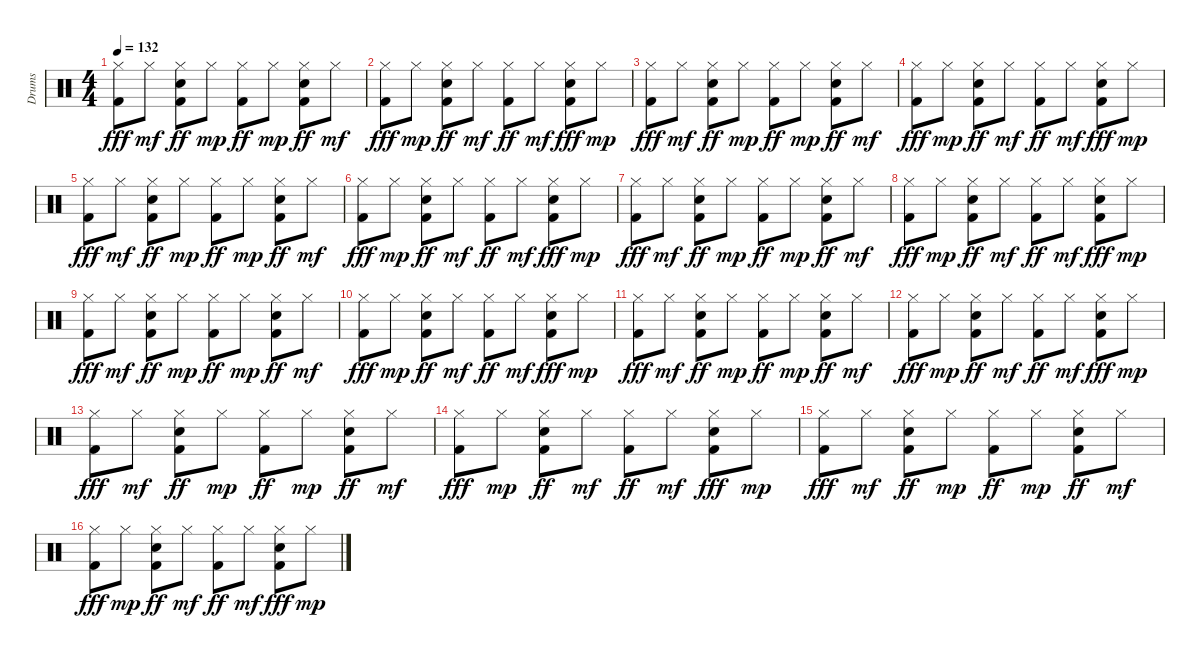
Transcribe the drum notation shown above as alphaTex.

\track ("Drums" "Drums") {instrument percussion}
\staff {score}
\articulation defaults
\ts (4 4)
\tempo 132
\clef neutral
\ks c
("Hi-Hat (closed)" "Kick (hit) 2").8{dy fff} "Hi-Hat (closed)".8{dy mf} ("Hi-Hat (closed)" "Kick (hit) 2" "Snare (hit) 2").8{dy ff} "Hi-Hat (closed)".8{dy mp} ("Hi-Hat (closed)" "Kick (hit) 2").8{dy ff} "Hi-Hat (closed)".8{dy mp} ("Kick (hit) 2" "Snare (hit) 2" "Hi-Hat (closed)").8{dy ff} "Hi-Hat (closed)".8{dy mf} |
("Kick (hit) 2" "Hi-Hat (closed)").8{dy fff} "Hi-Hat (closed)".8{dy mp} ("Kick (hit) 2" "Snare (hit) 2" "Hi-Hat (closed)").8{dy ff} "Hi-Hat (closed)".8{dy mf} ("Hi-Hat (closed)" "Kick (hit) 2").8{dy ff} "Hi-Hat (closed)".8{dy mf} ("Kick (hit) 2" "Snare (hit) 2" "Hi-Hat (closed)").8{dy fff} "Hi-Hat (closed)".8{dy mp} |
("Hi-Hat (closed)" "Kick (hit) 2").8{dy fff} "Hi-Hat (closed)".8{dy mf} ("Hi-Hat (closed)" "Kick (hit) 2" "Snare (hit) 2").8{dy ff} "Hi-Hat (closed)".8{dy mp} ("Hi-Hat (closed)" "Kick (hit) 2").8{dy ff} "Hi-Hat (closed)".8{dy mp} ("Kick (hit) 2" "Hi-Hat (closed)" "Snare (hit) 2").8{dy ff} "Hi-Hat (closed)".8{dy mf} |
("Hi-Hat (closed)" "Kick (hit) 2").8{dy fff} "Hi-Hat (closed)".8{dy mp} ("Hi-Hat (closed)" "Snare (hit) 2" "Kick (hit) 2").8{dy ff} "Hi-Hat (closed)".8{dy mf} ("Kick (hit) 2" "Hi-Hat (closed)").8{dy ff} "Hi-Hat (closed)".8{dy mf} ("Hi-Hat (closed)" "Snare (hit) 2" "Kick (hit) 2").8{dy fff} "Hi-Hat (closed)".8{dy mp} |
("Kick (hit) 2" "Hi-Hat (closed)").8{dy fff} "Hi-Hat (closed)".8{dy mf} ("Kick (hit) 2" "Snare (hit) 2" "Hi-Hat (closed)").8{dy ff} "Hi-Hat (closed)".8{dy mp} ("Kick (hit) 2" "Hi-Hat (closed)").8{dy ff} "Hi-Hat (closed)".8{dy mp} ("Hi-Hat (closed)" "Snare (hit) 2" "Kick (hit) 2").8{dy ff} "Hi-Hat (closed)".8{dy mf} |
("Kick (hit) 2" "Hi-Hat (closed)").8{dy fff} "Hi-Hat (closed)".8{dy mp} ("Kick (hit) 2" "Snare (hit) 2" "Hi-Hat (closed)").8{dy ff} "Hi-Hat (closed)".8{dy mf} ("Kick (hit) 2" "Hi-Hat (closed)").8{dy ff} "Hi-Hat (closed)".8{dy mf} ("Kick (hit) 2" "Snare (hit) 2" "Hi-Hat (closed)").8{dy fff} "Hi-Hat (closed)".8{dy mp} |
("Hi-Hat (closed)" "Kick (hit) 2").8{dy fff} "Hi-Hat (closed)".8{dy mf} ("Hi-Hat (closed)" "Kick (hit) 2" "Snare (hit) 2").8{dy ff} "Hi-Hat (closed)".8{dy mp} ("Kick (hit) 2" "Hi-Hat (closed)").8{dy ff} "Hi-Hat (closed)".8{dy mp} ("Hi-Hat (closed)" "Kick (hit) 2" "Snare (hit) 2").8{dy ff} "Hi-Hat (closed)".8{dy mf} |
("Hi-Hat (closed)" "Kick (hit) 2").8{dy fff} "Hi-Hat (closed)".8{dy mp} ("Hi-Hat (closed)" "Snare (hit) 2" "Kick (hit) 2").8{dy ff} "Hi-Hat (closed)".8{dy mf} ("Hi-Hat (closed)" "Kick (hit) 2").8{dy ff} "Hi-Hat (closed)".8{dy mf} ("Hi-Hat (closed)" "Snare (hit) 2" "Kick (hit) 2").8{dy fff} "Hi-Hat (closed)".8{dy mp} |
("Kick (hit) 2" "Hi-Hat (closed)").8{dy fff} "Hi-Hat (closed)".8{dy mf} ("Snare (hit) 2" "Hi-Hat (closed)" "Kick (hit) 2").8{dy ff} "Hi-Hat (closed)".8{dy mp} ("Hi-Hat (closed)" "Kick (hit) 2").8{dy ff} "Hi-Hat (closed)".8{dy mp} ("Hi-Hat (closed)" "Snare (hit) 2" "Kick (hit) 2").8{dy ff} "Hi-Hat (closed)".8{dy mf} |
("Kick (hit) 2" "Hi-Hat (closed)").8{dy fff} "Hi-Hat (closed)".8{dy mp} ("Snare (hit) 2" "Hi-Hat (closed)" "Kick (hit) 2").8{dy ff} "Hi-Hat (closed)".8{dy mf} ("Kick (hit) 2" "Hi-Hat (closed)").8{dy ff} "Hi-Hat (closed)".8{dy mf} ("Kick (hit) 2" "Snare (hit) 2" "Hi-Hat (closed)").8{dy fff} "Hi-Hat (closed)".8{dy mp} |
("Hi-Hat (closed)" "Kick (hit) 2").8{dy fff} "Hi-Hat (closed)".8{dy mf} ("Kick (hit) 2" "Snare (hit) 2" "Hi-Hat (closed)").8{dy ff} "Hi-Hat (closed)".8{dy mp} ("Hi-Hat (closed)" "Kick (hit) 2").8{dy ff} "Hi-Hat (closed)".8{dy mp} ("Hi-Hat (closed)" "Kick (hit) 2" "Snare (hit) 2").8{dy ff} "Hi-Hat (closed)".8{dy mf} |
("Hi-Hat (closed)" "Kick (hit) 2").8{dy fff} "Hi-Hat (closed)".8{dy mp} ("Kick (hit) 2" "Hi-Hat (closed)" "Snare (hit) 2").8{dy ff} "Hi-Hat (closed)".8{dy mf} ("Hi-Hat (closed)" "Kick (hit) 2").8{dy ff} "Hi-Hat (closed)".8{dy mf} ("Hi-Hat (closed)" "Snare (hit) 2" "Kick (hit) 2").8{dy fff} "Hi-Hat (closed)".8{dy mp} |
("Kick (hit) 2" "Hi-Hat (closed)").8{dy fff} "Hi-Hat (closed)".8{dy mf} ("Kick (hit) 2" "Hi-Hat (closed)" "Snare (hit) 2").8{dy ff} "Hi-Hat (closed)".8{dy mp} ("Hi-Hat (closed)" "Kick (hit) 2").8{dy ff} "Hi-Hat (closed)".8{dy mp} ("Hi-Hat (closed)" "Snare (hit) 2" "Kick (hit) 2").8{dy ff} "Hi-Hat (closed)".8{dy mf} |
("Kick (hit) 2" "Hi-Hat (closed)").8{dy fff} "Hi-Hat (closed)".8{dy mp} ("Hi-Hat (closed)" "Snare (hit) 2" "Kick (hit) 2").8{dy ff} "Hi-Hat (closed)".8{dy mf} ("Kick (hit) 2" "Hi-Hat (closed)").8{dy ff} "Hi-Hat (closed)".8{dy mf} ("Kick (hit) 2" "Snare (hit) 2" "Hi-Hat (closed)").8{dy fff} "Hi-Hat (closed)".8{dy mp} |
("Kick (hit) 2" "Hi-Hat (closed)").8{dy fff} "Hi-Hat (closed)".8{dy mf} ("Kick (hit) 2" "Snare (hit) 2" "Hi-Hat (closed)").8{dy ff} "Hi-Hat (closed)".8{dy mp} ("Hi-Hat (closed)" "Kick (hit) 2").8{dy ff} "Hi-Hat (closed)".8{dy mp} ("Hi-Hat (closed)" "Kick (hit) 2" "Snare (hit) 2").8{dy ff} "Hi-Hat (closed)".8{dy mf} |
("Kick (hit) 2" "Hi-Hat (closed)").8{dy fff} "Hi-Hat (closed)".8{dy mp} ("Hi-Hat (closed)" "Kick (hit) 2" "Snare (hit) 2").8{dy ff} "Hi-Hat (closed)".8{dy mf} ("Hi-Hat (closed)" "Kick (hit) 2").8{dy ff} "Hi-Hat (closed)".8{dy mf} ("Hi-Hat (closed)" "Snare (hit) 2" "Kick (hit) 2").8{dy fff} "Hi-Hat (closed)".8{dy mp}
